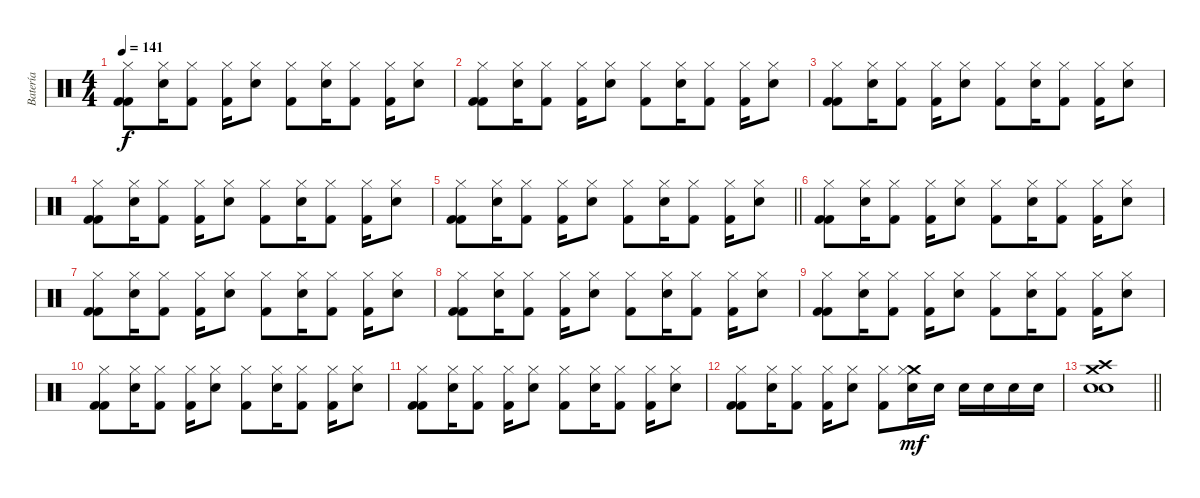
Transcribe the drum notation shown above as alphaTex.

\track ("Batería" "Batería") {instrument percussion}
\staff {score}
\articulation defaults
\ts (4 4)
\tempo 141
\clef neutral
\ks c
("Hi-Hat (closed)" "Kick (hit) 2" "Kick (hit) 2").8{dy f} ("Hi-Hat (closed)" "Electric Snare (hit)").16 ("Hi-Hat (closed)" "Kick (hit) 2").8 ("Hi-Hat (closed)" "Kick (hit) 2").16 ("Hi-Hat (closed)" "Electric Snare (hit)").8 ("Hi-Hat (closed)" "Kick (hit) 2").8 ("Hi-Hat (closed)" "Electric Snare (hit)").16 ("Hi-Hat (closed)" "Kick (hit) 2").8 ("Hi-Hat (closed)" "Kick (hit) 2").16 ("Hi-Hat (closed)" "Electric Snare (hit)").8 |
("Hi-Hat (closed)" "Kick (hit) 2" "Kick (hit) 2").8 ("Hi-Hat (closed)" "Electric Snare (hit)").16 ("Hi-Hat (closed)" "Kick (hit) 2").8 ("Hi-Hat (closed)" "Kick (hit) 2").16 ("Hi-Hat (closed)" "Electric Snare (hit)").8 ("Hi-Hat (closed)" "Kick (hit) 2").8 ("Hi-Hat (closed)" "Electric Snare (hit)").16 ("Hi-Hat (closed)" "Kick (hit) 2").8 ("Hi-Hat (closed)" "Kick (hit) 2").16 ("Hi-Hat (closed)" "Electric Snare (hit)").8 |
("Hi-Hat (closed)" "Kick (hit) 2" "Kick (hit) 2").8 ("Hi-Hat (closed)" "Electric Snare (hit)").16 ("Hi-Hat (closed)" "Kick (hit) 2").8 ("Hi-Hat (closed)" "Kick (hit) 2").16 ("Hi-Hat (closed)" "Electric Snare (hit)").8 ("Hi-Hat (closed)" "Kick (hit) 2").8 ("Hi-Hat (closed)" "Electric Snare (hit)").16 ("Hi-Hat (closed)" "Kick (hit) 2").8 ("Hi-Hat (closed)" "Kick (hit) 2").16 ("Hi-Hat (closed)" "Electric Snare (hit)").8 |
("Hi-Hat (closed)" "Kick (hit) 2" "Kick (hit) 2").8 ("Hi-Hat (closed)" "Electric Snare (hit)").16 ("Hi-Hat (closed)" "Kick (hit) 2").8 ("Hi-Hat (closed)" "Kick (hit) 2").16 ("Hi-Hat (closed)" "Electric Snare (hit)").8 ("Hi-Hat (closed)" "Kick (hit) 2").8 ("Hi-Hat (closed)" "Electric Snare (hit)").16 ("Hi-Hat (closed)" "Kick (hit) 2").8 ("Hi-Hat (closed)" "Kick (hit) 2").16 ("Hi-Hat (closed)" "Electric Snare (hit)").8 |
\barLineRight lightlight
("Hi-Hat (closed)" "Kick (hit) 2" "Kick (hit) 2").8 ("Hi-Hat (closed)" "Electric Snare (hit)").16 ("Hi-Hat (closed)" "Kick (hit) 2").8 ("Hi-Hat (closed)" "Kick (hit) 2").16 ("Hi-Hat (closed)" "Electric Snare (hit)").8 ("Hi-Hat (closed)" "Kick (hit) 2").8 ("Hi-Hat (closed)" "Electric Snare (hit)").16 ("Hi-Hat (closed)" "Kick (hit) 2").8 ("Hi-Hat (closed)" "Kick (hit) 2").16 ("Hi-Hat (closed)" "Electric Snare (hit)").8 |
\section ("" "")
("Hi-Hat (closed)" "Kick (hit) 2" "Kick (hit) 2").8 ("Hi-Hat (closed)" "Electric Snare (hit)").16 ("Hi-Hat (closed)" "Kick (hit) 2").8 ("Hi-Hat (closed)" "Kick (hit) 2").16 ("Hi-Hat (closed)" "Electric Snare (hit)").8 ("Hi-Hat (closed)" "Kick (hit) 2").8 ("Hi-Hat (closed)" "Electric Snare (hit)").16 ("Hi-Hat (closed)" "Kick (hit) 2").8 ("Hi-Hat (closed)" "Kick (hit) 2").16 ("Hi-Hat (closed)" "Electric Snare (hit)").8 |
("Hi-Hat (closed)" "Kick (hit) 2" "Kick (hit) 2").8 ("Hi-Hat (closed)" "Electric Snare (hit)").16 ("Hi-Hat (closed)" "Kick (hit) 2").8 ("Hi-Hat (closed)" "Kick (hit) 2").16 ("Hi-Hat (closed)" "Electric Snare (hit)").8 ("Hi-Hat (closed)" "Kick (hit) 2").8 ("Hi-Hat (closed)" "Electric Snare (hit)").16 ("Hi-Hat (closed)" "Kick (hit) 2").8 ("Hi-Hat (closed)" "Kick (hit) 2").16 ("Hi-Hat (closed)" "Electric Snare (hit)").8 |
("Hi-Hat (closed)" "Kick (hit) 2" "Kick (hit) 2").8 ("Hi-Hat (closed)" "Electric Snare (hit)").16 ("Hi-Hat (closed)" "Kick (hit) 2").8 ("Hi-Hat (closed)" "Kick (hit) 2").16 ("Hi-Hat (closed)" "Electric Snare (hit)").8 ("Hi-Hat (closed)" "Kick (hit) 2").8 ("Hi-Hat (closed)" "Electric Snare (hit)").16 ("Hi-Hat (closed)" "Kick (hit) 2").8 ("Hi-Hat (closed)" "Kick (hit) 2").16 ("Hi-Hat (closed)" "Electric Snare (hit)").8 |
("Hi-Hat (closed)" "Kick (hit) 2" "Kick (hit) 2").8 ("Hi-Hat (closed)" "Electric Snare (hit)").16 ("Hi-Hat (closed)" "Kick (hit) 2").8 ("Hi-Hat (closed)" "Kick (hit) 2").16 ("Hi-Hat (closed)" "Electric Snare (hit)").8 ("Hi-Hat (closed)" "Kick (hit) 2").8 ("Hi-Hat (closed)" "Electric Snare (hit)").16 ("Hi-Hat (closed)" "Kick (hit) 2").8 ("Hi-Hat (closed)" "Kick (hit) 2").16 ("Hi-Hat (closed)" "Electric Snare (hit)").8 |
("Hi-Hat (closed)" "Kick (hit) 2" "Kick (hit) 2").8 ("Hi-Hat (closed)" "Electric Snare (hit)").16 ("Hi-Hat (closed)" "Kick (hit) 2").8 ("Hi-Hat (closed)" "Kick (hit) 2").16 ("Hi-Hat (closed)" "Electric Snare (hit)").8 ("Hi-Hat (closed)" "Kick (hit) 2").8 ("Hi-Hat (closed)" "Electric Snare (hit)").16 ("Hi-Hat (closed)" "Kick (hit) 2").8 ("Hi-Hat (closed)" "Kick (hit) 2").16 ("Hi-Hat (closed)" "Electric Snare (hit)").8 |
("Hi-Hat (closed)" "Kick (hit) 2" "Kick (hit) 2").8 ("Hi-Hat (closed)" "Electric Snare (hit)").16 ("Hi-Hat (closed)" "Kick (hit) 2").8 ("Hi-Hat (closed)" "Kick (hit) 2").16 ("Hi-Hat (closed)" "Electric Snare (hit)").8 ("Hi-Hat (closed)" "Kick (hit) 2").8 ("Hi-Hat (closed)" "Electric Snare (hit)").16 ("Hi-Hat (closed)" "Kick (hit) 2").8 ("Hi-Hat (closed)" "Kick (hit) 2").16 ("Hi-Hat (closed)" "Electric Snare (hit)").8 |
("Hi-Hat (closed)" "Kick (hit) 2" "Kick (hit) 2").8 ("Hi-Hat (closed)" "Electric Snare (hit)").16 ("Hi-Hat (closed)" "Kick (hit) 2").8 ("Hi-Hat (closed)" "Kick (hit) 2").16 ("Hi-Hat (closed)" "Electric Snare (hit)").8 ("Hi-Hat (closed)" "Kick (hit) 2").8 ("Crash medium (hit)" "Hi-Hat (closed)" "Electric Snare (hit)").16{dy mf} "Snare (hit) 2".16 "Snare (hit) 2".16 "Snare (hit) 2".16 "Snare (hit) 2".16 "Snare (hit) 2".16 |
\barLineRight lightlight
("Crash medium (hit)" "Crash high (hit)" "Electric Snare (hit)" "Snare (hit) 2").1
